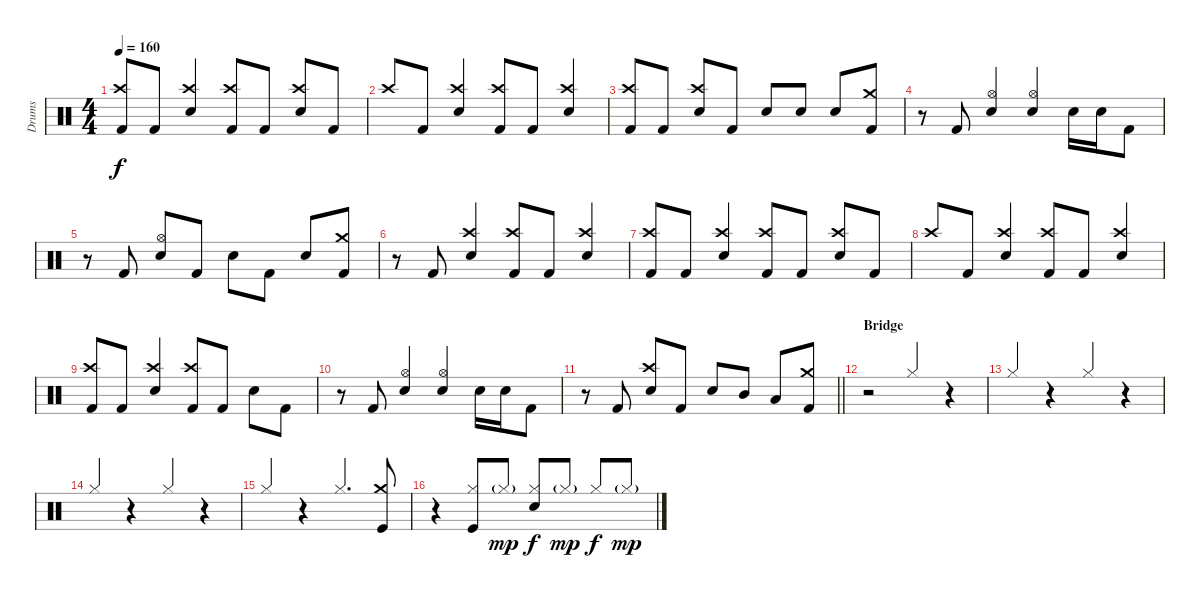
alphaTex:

\track ("Drums" "Drums") {solo instrument percussion}
\staff {score}
\articulation defaults
\ts (4 4)
\tempo 160
\clef neutral
\ks c
("Crash high (hit)" "Kick (hit) 2").8{dy f beam Up} "Kick (hit) 2".8{beam Up} ("Crash high (hit)" "Snare (hit) 2").4{beam Up} ("Crash high (hit)" "Kick (hit) 2").8{beam Up} "Kick (hit) 2".8{beam Up} ("Crash high (hit)" "Snare (hit) 2").8{beam Up} "Kick (hit) 2".8{beam Up} |
"Crash high (hit)".8{beam Up} "Kick (hit) 2".8{beam Up} ("Crash high (hit)" "Snare (hit) 2").4{beam Up} ("Crash high (hit)" "Kick (hit) 2").8{beam Up} "Kick (hit) 2".8{beam Up} ("Crash high (hit)" "Snare (hit) 2").4{beam Up} |
("Crash high (hit)" "Kick (hit) 2").8{beam Up} "Kick (hit) 2".8{beam Up} ("Crash high (hit)" "Snare (hit) 2").8{beam Up} "Kick (hit) 2".8{beam Up} "Snare (hit) 2".8{beam Up} "Snare (hit) 2".8{beam Up} "Snare (hit) 2".8{beam Up} ("Crash medium (hit)" "Kick (hit) 2").8{beam Up} |
r.8{beam Up} "Kick (hit) 2".8{beam Down} ("Hi-Hat (open)" "Snare (hit) 2").4{beam Up} ("Hi-Hat (open)" "Snare (hit) 2").4{beam Up} "Snare (hit) 2".16{beam Down} "Snare (hit) 2".16{beam Down} "Kick (hit) 2".8{beam Down} |
r.8{beam Up} "Kick (hit) 2".8{beam Down} ("Hi-Hat (open)" "Snare (hit) 2").8{beam Up} "Kick (hit) 2".8{beam Up} "Snare (hit) 2".8{beam Down} "Kick (hit) 2".8{beam Down} "Snare (hit) 2".8{beam Up} ("Crash medium (hit)" "Kick (hit) 2").8{beam Up} |
r.8{beam Up} "Kick (hit) 2".8{beam Down} ("Crash high (hit)" "Snare (hit) 2").4{beam Up} ("Crash high (hit)" "Kick (hit) 2").8{beam Up} "Kick (hit) 2".8{beam Up} ("Crash high (hit)" "Snare (hit) 2").4{beam Up} |
("Crash high (hit)" "Kick (hit) 2").8{beam Up} "Kick (hit) 2".8{beam Up} ("Crash high (hit)" "Snare (hit) 2").4{beam Up} ("Crash high (hit)" "Kick (hit) 2").8{beam Up} "Kick (hit) 2".8{beam Up} ("Crash high (hit)" "Snare (hit) 2").8{beam Up} "Kick (hit) 2".8{beam Up} |
"Crash high (hit)".8{beam Up} "Kick (hit) 2".8{beam Up} ("Crash high (hit)" "Snare (hit) 2").4{beam Up} ("Crash high (hit)" "Kick (hit) 2").8{beam Up} "Kick (hit) 2".8{beam Up} ("Crash high (hit)" "Snare (hit) 2").4{beam Up} |
("Crash high (hit)" "Kick (hit) 2").8{beam Up} "Kick (hit) 2".8{beam Up} ("Crash high (hit)" "Snare (hit) 2").4{beam Up} ("Crash high (hit)" "Kick (hit) 2").8{beam Up} "Kick (hit) 2".8{beam Up} "Snare (hit) 2".8{beam Down} "Kick (hit) 2".8{beam Down} |
r.8{beam Up} "Kick (hit) 2".8{beam Down} ("Hi-Hat (open)" "Snare (hit) 2").4{beam Up} ("Hi-Hat (open)" "Snare (hit) 2").4{beam Up} "Snare (hit) 2".16{beam Down} "Snare (hit) 2".16{beam Down} "Kick (hit) 2".8{beam Down} |
\barLineRight lightlight
r.8{beam Up} "Kick (hit) 2".8{beam Down} ("Crash high (hit)" "Snare (hit) 2").8{beam Up} "Kick (hit) 2".8{beam Up} "Snare (hit) 2".8{beam Up} "Mid Tom (hit)".8{beam Up} "Low Tom (hit)".8{beam Up} ("Crash medium (hit)" "Kick (hit) 2").8{beam Up} |
\section ("" "Bridge")
r.2 "Hi-Hat (closed)".4{beam Up} r.4 |
"Hi-Hat (closed)".4{beam Up} r.4 "Hi-Hat (closed)".4{beam Up} r.4 |
"Hi-Hat (closed)".4{beam Up} r.4 "Hi-Hat (closed)".4{beam Up} r.4 |
"Hi-Hat (closed)".4{beam Up} r.4 "Hi-Hat (closed)".4{d beam Up} ("Crash medium (hit)" "Kick (hit)").8{beam Up} |
r.4{beam Up} ("Hi-Hat (closed)" "Kick (hit)").8{beam Up} "Hi-Hat (closed)"{g}.8{dy mp beam Up} ("Hi-Hat (closed)" "Electric Snare (hit)").8{dy f beam Up} "Hi-Hat (closed)"{g}.8{dy mp beam Up} "Hi-Hat (closed)".8{dy f beam Up} "Hi-Hat (closed)"{g}.8{dy mp beam Up}
